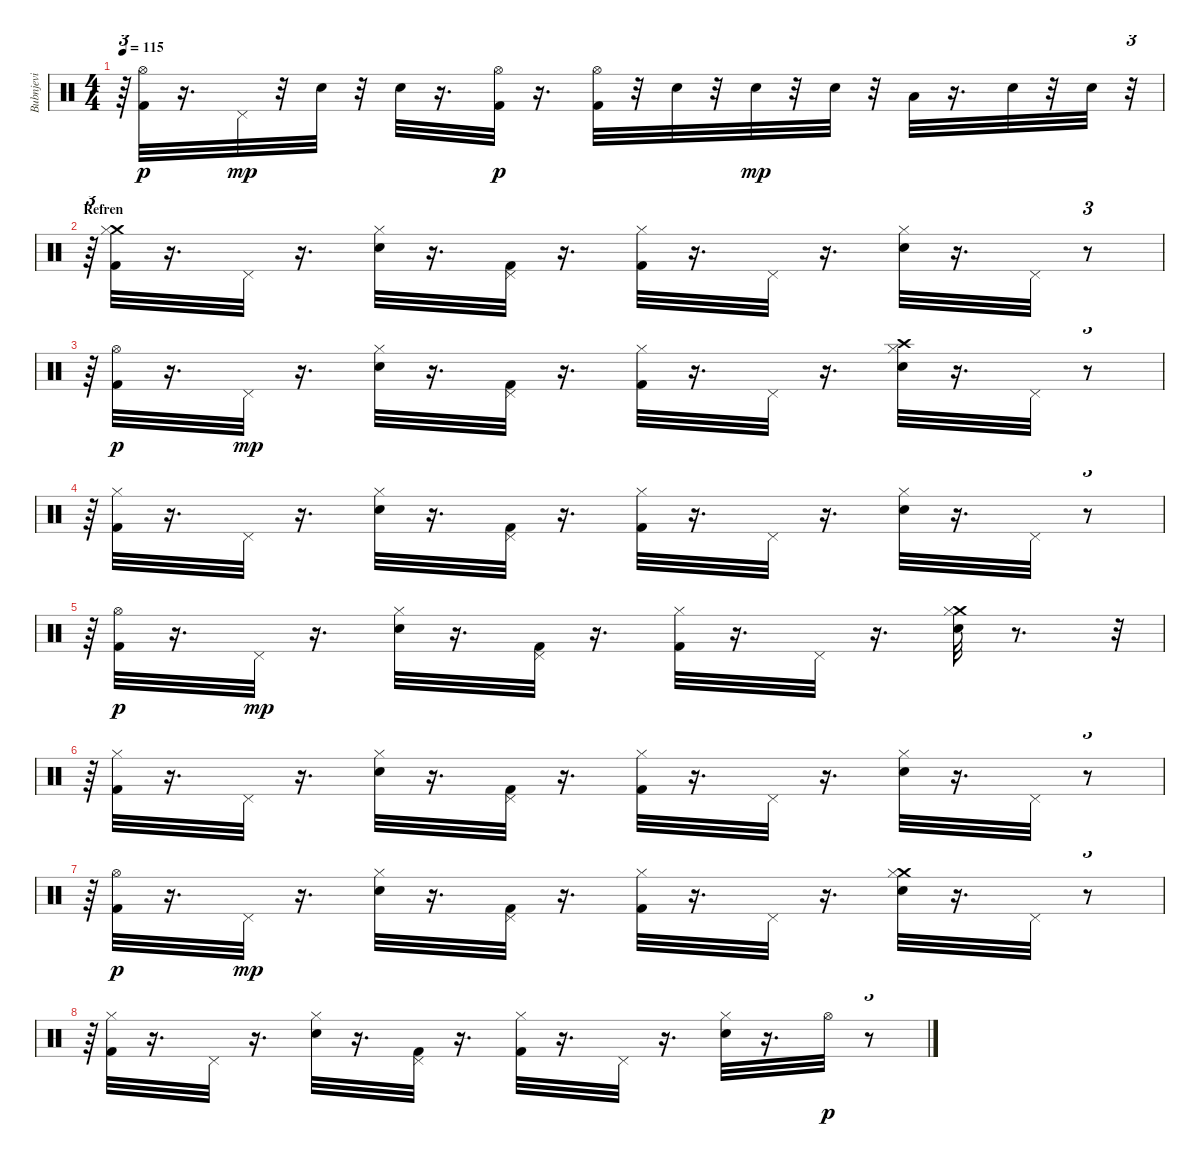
\track ("Bubnjevi" "Bubnjevi") {instrument percussion}
\staff {score}
\articulation defaults
\ts (4 4)
\tempo 115
\clef neutral
\ks c
r.64{tu (3 2) dy mp} ("Hi-Hat (open)" "Kick (hit) 2").32{dy p} r.16{d} "Pedal Hi-Hat (hit)".32{dy mp} r.32 "Electric Snare (hit)".32 r.32 "Electric Snare (hit)".32 r.16{d} ("Hi-Hat (open)" "Kick (hit) 2").32{dy p} r.16{d} ("Hi-Hat (open)" "Kick (hit) 2").32 r.32 "Electric Snare (hit)".32 r.32 "Electric Snare (hit)".32{dy mp} r.32 "Electric Snare (hit)".32 r.32 "Low Tom (hit)".32 r.16{d} "Electric Snare (hit)".32 r.32 "Electric Snare (hit)".32 r.32{tu (3 2)} |
\section ("" "Refren")
r.64{tu (3 2)} ("Crash medium (hit)" "Kick (hit) 2" "Hi-Hat (closed)").32 r.16{d} "Pedal Hi-Hat (hit)".32 r.16{d} ("Electric Snare (hit)" "Hi-Hat (closed)").32 r.16{d} ("Kick (hit) 2" "Pedal Hi-Hat (hit)").32 r.16{d} ("Kick (hit) 2" "Hi-Hat (closed)").32 r.16{d} "Pedal Hi-Hat (hit)".32 r.16{d} ("Electric Snare (hit)" "Hi-Hat (closed)").32 r.16{d} "Pedal Hi-Hat (hit)".32 r.8{tu (3 2)} |
r.64{tu (3 2)} ("Hi-Hat (open)" "Kick (hit) 2").32{dy p} r.16{d} "Pedal Hi-Hat (hit)".32{dy mp} r.16{d} ("Hi-Hat (closed)" "Electric Snare (hit)").32 r.16{d} ("Pedal Hi-Hat (hit)" "Kick (hit) 2").32 r.16{d} ("Hi-Hat (closed)" "Kick (hit) 2").32 r.16{d} "Pedal Hi-Hat (hit)".32 r.16{d} ("Crash high (hit)" "Hi-Hat (closed)" "Electric Snare (hit)").32 r.16{d} "Pedal Hi-Hat (hit)".32 r.8{tu (3 2)} |
r.64{tu (3 2)} ("Hi-Hat (closed)" "Kick (hit) 2").32 r.16{d} "Pedal Hi-Hat (hit)".32 r.16{d} ("Hi-Hat (closed)" "Electric Snare (hit)").32 r.16{d} ("Pedal Hi-Hat (hit)" "Kick (hit) 2").32 r.16{d} ("Hi-Hat (closed)" "Kick (hit) 2").32 r.16{d} "Pedal Hi-Hat (hit)".32 r.16{d} ("Hi-Hat (closed)" "Electric Snare (hit)").32 r.16{d} "Pedal Hi-Hat (hit)".32 r.8{tu (3 2)} |
r.64{tu (3 2)} ("Hi-Hat (open)" "Kick (hit) 2").32{dy p} r.16{d} "Pedal Hi-Hat (hit)".32{dy mp} r.16{d} ("Electric Snare (hit)" "Hi-Hat (closed)").32 r.16{d} ("Kick (hit) 2" "Pedal Hi-Hat (hit)").32 r.16{d} ("Kick (hit) 2" "Hi-Hat (closed)").32 r.16{d} "Pedal Hi-Hat (hit)".32 r.16{d} ("Crash medium (hit)" "Electric Snare (hit)" "Hi-Hat (closed)").32 r.8{d} r.32{tu (3 2)} |
r.64{tu (3 2)} ("Hi-Hat (closed)" "Kick (hit) 2").32 r.16{d} "Pedal Hi-Hat (hit)".32 r.16{d} ("Hi-Hat (closed)" "Electric Snare (hit)").32 r.16{d} ("Pedal Hi-Hat (hit)" "Kick (hit) 2").32 r.16{d} ("Hi-Hat (closed)" "Kick (hit) 2").32 r.16{d} "Pedal Hi-Hat (hit)".32 r.16{d} ("Hi-Hat (closed)" "Electric Snare (hit)").32 r.16{d} "Pedal Hi-Hat (hit)".32 r.8{tu (3 2)} |
r.64{tu (3 2)} ("Hi-Hat (open)" "Kick (hit) 2").32{dy p} r.16{d} "Pedal Hi-Hat (hit)".32{dy mp} r.16{d} ("Electric Snare (hit)" "Hi-Hat (closed)").32 r.16{d} ("Kick (hit) 2" "Pedal Hi-Hat (hit)").32 r.16{d} ("Kick (hit) 2" "Hi-Hat (closed)").32 r.16{d} "Pedal Hi-Hat (hit)".32 r.16{d} ("Crash medium (hit)" "Electric Snare (hit)" "Hi-Hat (closed)").32 r.16{d} "Pedal Hi-Hat (hit)".32 r.8{tu (3 2)} |
r.64{tu (3 2)} ("Kick (hit) 2" "Hi-Hat (closed)").32 r.16{d} "Pedal Hi-Hat (hit)".32 r.16{d} ("Electric Snare (hit)" "Hi-Hat (closed)").32 r.16{d} ("Kick (hit) 2" "Pedal Hi-Hat (hit)").32 r.16{d} ("Kick (hit) 2" "Hi-Hat (closed)").32 r.16{d} "Pedal Hi-Hat (hit)".32 r.16{d} ("Electric Snare (hit)" "Hi-Hat (closed)").32 r.16{d} "Hi-Hat (open)".32{dy p} r.8{tu (3 2)}
